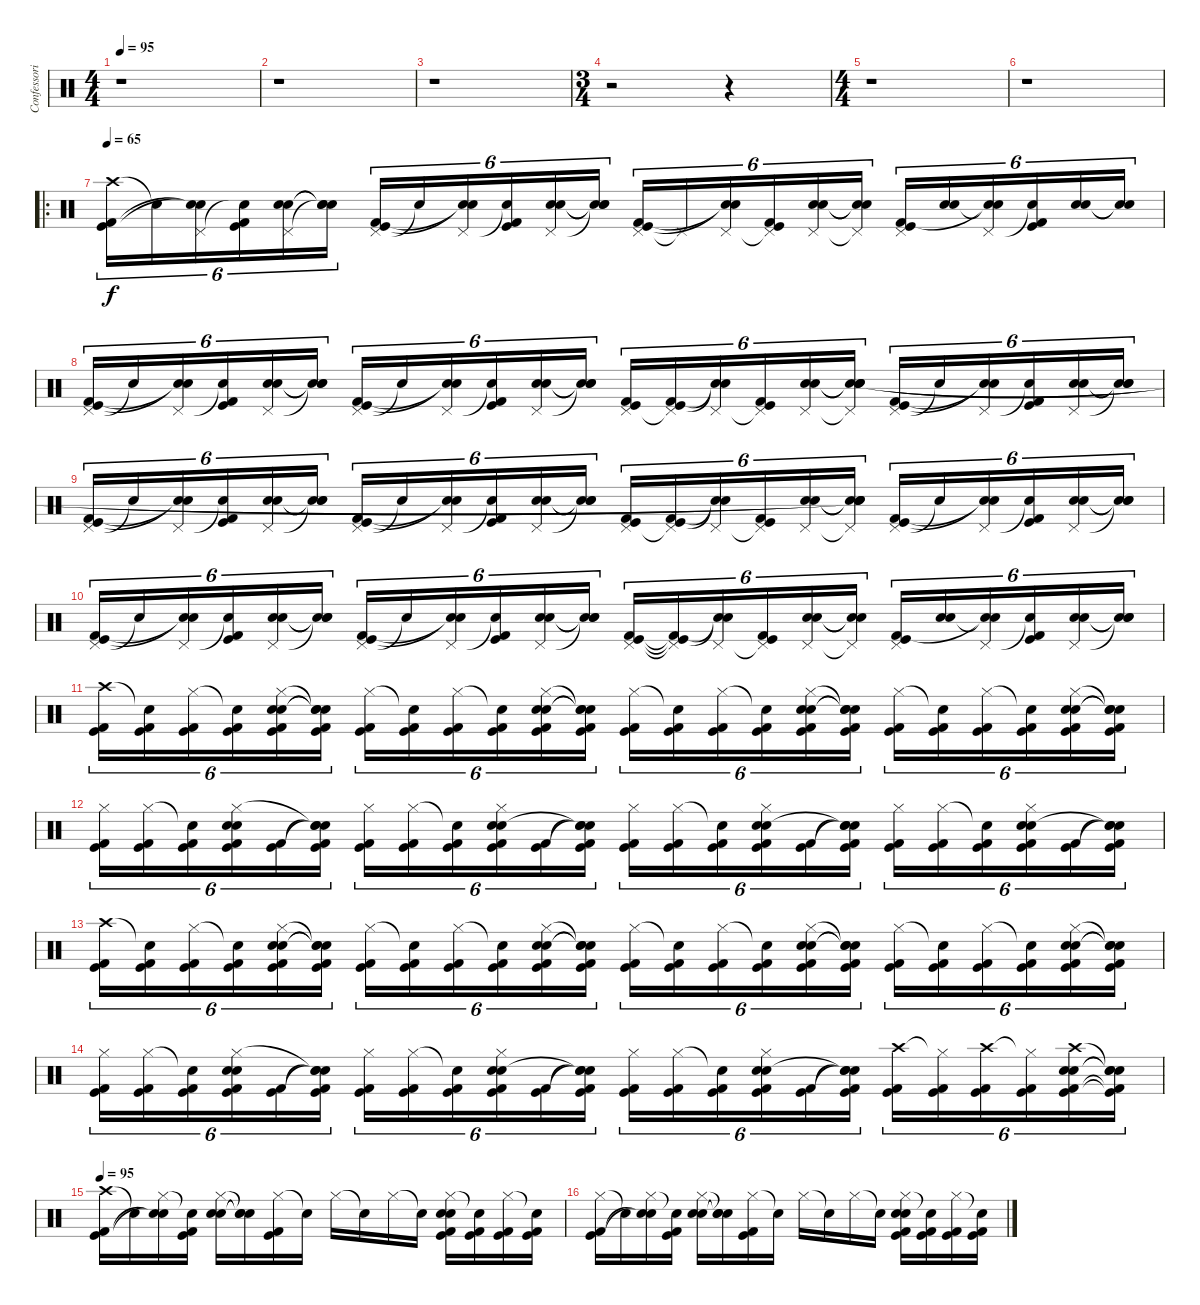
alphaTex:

\track ("Confessori" "Confessori") {instrument percussion}
\staff {score}
\articulation defaults
\ts (4 4)
\tempo 95
\clef neutral
\ks c
r.1{dy f} |
r.1 |
r.1 |
\ts (3 4)
r.2 r.4 |
\ts (4 4)
r.1 |
r.1 |
\ro
\tempo 65
("Crash high (hit)" "Kick (hit)" "Kick (hit) 2").16{tu (6 4) volume 9 balance 8} "Snare (hit)"{t}.16{tu (6 4)} ("Pedal Hi-Hat (hit)" "Snare (hit)"{t} "Snare (hit)"{t}).16{tu (6 4)} ("Snare (hit)"{t} "Kick (hit) 2" "Kick (hit)").16{tu (6 4)} ("Pedal Hi-Hat (hit)" "Electric Snare (hit)" "Snare (hit) 2").16{tu (6 4)} ("Snare (hit)"{t} "Snare (hit)"{t} "Snare (hit)"{t}).16{tu (6 4)} ("Pedal Hi-Hat (hit)" "Kick (hit) 2" "Kick (hit)").16{tu (6 4)} "Snare (hit)"{t}.16{tu (6 4)} ("Pedal Hi-Hat (hit)" "Snare (hit)"{t} "Snare (hit)"{t}).16{tu (6 4)} ("Snare (hit)"{t} "Kick (hit) 2" "Kick (hit)").16{tu (6 4)} ("Pedal Hi-Hat (hit)" "Electric Snare (hit)" "Snare (hit) 2").16{tu (6 4)} ("Snare (hit)"{t} "Snare (hit)"{t} "Snare (hit)"{t}).16{tu (6 4)} ("Pedal Hi-Hat (hit)" "Kick (hit)" "Kick (hit) 2").16{tu (6 4)} "Pedal Hi-Hat (hit)"{t}.16{tu (6 4)} ("Pedal Hi-Hat (hit)" "Snare (hit)"{t} "Snare (hit)"{t}).16{tu (6 4)} ("Pedal Hi-Hat (hit)"{t} "Kick (hit) 2" "Kick (hit)").16{tu (6 4)} ("Pedal Hi-Hat (hit)" "Electric Snare (hit)" "Snare (hit) 2").16{tu (6 4)} ("Pedal Hi-Hat (hit)"{t} "Snare (hit)"{t} "Snare (hit)"{t}).16{tu (6 4)} ("Pedal Hi-Hat (hit)" "Kick (hit)" "Kick (hit) 2").16{tu (6 4)} ("Electric Snare (hit)" "Snare (hit) 2").16{tu (6 4)} ("Pedal Hi-Hat (hit)" "Snare (hit)"{t} "Snare (hit)"{t}).16{tu (6 4)} ("Snare (hit)"{t} "Kick (hit)" "Kick (hit) 2").16{tu (6 4)} ("Electric Snare (hit)" "Snare (hit) 2").16{tu (6 4)} ("Snare (hit)"{t} "Snare (hit)"{t}).16{tu (6 4)} |
("Pedal Hi-Hat (hit)" "Kick (hit)" "Kick (hit) 2").16{tu (6 4)} "Snare (hit)"{t}.16{tu (6 4)} ("Pedal Hi-Hat (hit)" "Snare (hit)"{t} "Snare (hit)"{t}).16{tu (6 4)} ("Snare (hit)"{t} "Kick (hit) 2" "Kick (hit)").16{tu (6 4)} ("Pedal Hi-Hat (hit)" "Electric Snare (hit)" "Snare (hit) 2").16{tu (6 4)} ("Snare (hit)"{t} "Snare (hit)"{t} "Snare (hit)"{t}).16{tu (6 4)} ("Pedal Hi-Hat (hit)" "Kick (hit) 2" "Kick (hit)").16{tu (6 4)} "Snare (hit)"{t}.16{tu (6 4)} ("Pedal Hi-Hat (hit)" "Snare (hit)"{t} "Snare (hit)"{t}).16{tu (6 4)} ("Snare (hit)"{t} "Kick (hit) 2" "Kick (hit)").16{tu (6 4)} ("Pedal Hi-Hat (hit)" "Electric Snare (hit)" "Snare (hit) 2").16{tu (6 4)} ("Snare (hit)"{t} "Snare (hit)"{t} "Snare (hit)"{t}).16{tu (6 4)} ("Pedal Hi-Hat (hit)" "Kick (hit)" "Kick (hit) 2").16{tu (6 4)} ("Pedal Hi-Hat (hit)"{t} "Kick (hit)" "Kick (hit) 2").16{tu (6 4)} ("Pedal Hi-Hat (hit)" "Snare (hit)"{t} "Snare (hit)"{t}).16{tu (6 4)} ("Pedal Hi-Hat (hit)"{t} "Kick (hit) 2" "Kick (hit)").16{tu (6 4)} ("Pedal Hi-Hat (hit)" "Electric Snare (hit)" "Snare (hit) 2").16{tu (6 4)} ("Pedal Hi-Hat (hit)"{t} "Snare (hit)"{t} "Snare (hit)"{t} "Snare (hit)" "Snare (hit)").16{tu (6 4)} ("Pedal Hi-Hat (hit)" "Kick (hit)" "Kick (hit) 2").16{tu (6 4)} "Snare (hit)"{t}.16{tu (6 4)} ("Pedal Hi-Hat (hit)" "Snare (hit)"{t} "Snare (hit)"{t}).16{tu (6 4)} ("Snare (hit)"{t} "Kick (hit)" "Kick (hit) 2").16{tu (6 4)} ("Pedal Hi-Hat (hit)" "Electric Snare (hit)" "Snare (hit) 2").16{tu (6 4)} ("Snare (hit)"{t} "Snare (hit)"{t} "Snare (hit)"{t}).16{tu (6 4)} |
("Pedal Hi-Hat (hit)" "Kick (hit)" "Kick (hit) 2").16{tu (6 4)} "Snare (hit)"{t}.16{tu (6 4)} ("Pedal Hi-Hat (hit)" "Snare (hit)"{t} "Snare (hit)"{t}).16{tu (6 4)} ("Snare (hit)"{t} "Kick (hit) 2" "Kick (hit)").16{tu (6 4)} ("Pedal Hi-Hat (hit)" "Electric Snare (hit)" "Snare (hit) 2").16{tu (6 4)} ("Snare (hit)"{t} "Snare (hit)"{t} "Snare (hit)"{t}).16{tu (6 4)} ("Pedal Hi-Hat (hit)" "Kick (hit) 2" "Kick (hit)").16{tu (6 4)} "Snare (hit)"{t}.16{tu (6 4)} ("Pedal Hi-Hat (hit)" "Snare (hit)"{t} "Snare (hit)"{t}).16{tu (6 4)} ("Snare (hit)"{t} "Kick (hit) 2" "Kick (hit)").16{tu (6 4)} ("Pedal Hi-Hat (hit)" "Electric Snare (hit)" "Snare (hit) 2").16{tu (6 4)} ("Snare (hit)"{t} "Snare (hit)"{t} "Snare (hit)"{t}).16{tu (6 4)} ("Pedal Hi-Hat (hit)" "Kick (hit)" "Kick (hit) 2").16{tu (6 4)} ("Pedal Hi-Hat (hit)"{t} "Kick (hit)" "Kick (hit) 2").16{tu (6 4)} ("Pedal Hi-Hat (hit)" "Snare (hit)"{t} "Snare (hit)"{t}).16{tu (6 4)} ("Pedal Hi-Hat (hit)"{t} "Kick (hit) 2" "Kick (hit)").16{tu (6 4)} ("Pedal Hi-Hat (hit)" "Electric Snare (hit)" "Snare (hit) 2").16{tu (6 4)} ("Pedal Hi-Hat (hit)"{t} "Snare (hit)"{t} "Snare (hit)"{t} "Snare (hit)"{t} "Snare (hit)"{t}).16{tu (6 4)} ("Pedal Hi-Hat (hit)" "Kick (hit)" "Kick (hit) 2").16{tu (6 4)} "Snare (hit)"{t}.16{tu (6 4)} ("Pedal Hi-Hat (hit)" "Snare (hit)"{t} "Snare (hit)"{t}).16{tu (6 4)} ("Snare (hit)"{t} "Kick (hit)" "Kick (hit) 2").16{tu (6 4)} ("Pedal Hi-Hat (hit)" "Electric Snare (hit)" "Snare (hit) 2").16{tu (6 4)} ("Snare (hit)"{t} "Snare (hit)"{t} "Snare (hit)"{t}).16{tu (6 4)} |
("Pedal Hi-Hat (hit)" "Kick (hit)" "Kick (hit) 2").16{tu (6 4)} "Snare (hit)"{t}.16{tu (6 4)} ("Pedal Hi-Hat (hit)" "Snare (hit)"{t} "Snare (hit)"{t}).16{tu (6 4)} ("Snare (hit)"{t} "Kick (hit) 2" "Kick (hit)").16{tu (6 4)} ("Pedal Hi-Hat (hit)" "Electric Snare (hit)" "Snare (hit) 2").16{tu (6 4)} ("Snare (hit)"{t} "Snare (hit)"{t} "Snare (hit)"{t}).16{tu (6 4)} ("Pedal Hi-Hat (hit)" "Kick (hit) 2" "Kick (hit)").16{tu (6 4)} "Snare (hit)"{t}.16{tu (6 4)} ("Pedal Hi-Hat (hit)" "Snare (hit)"{t} "Snare (hit)"{t}).16{tu (6 4)} ("Snare (hit)"{t} "Kick (hit) 2" "Kick (hit)").16{tu (6 4)} ("Pedal Hi-Hat (hit)" "Electric Snare (hit)" "Snare (hit) 2").16{tu (6 4)} ("Snare (hit)"{t} "Snare (hit)"{t} "Snare (hit)"{t}).16{tu (6 4)} ("Pedal Hi-Hat (hit)" "Kick (hit)" "Kick (hit) 2").16{tu (6 4)} ("Pedal Hi-Hat (hit)"{t} "Kick (hit)"{t} "Kick (hit) 2"{t}).16{tu (6 4)} ("Pedal Hi-Hat (hit)" "Snare (hit)"{t} "Snare (hit)"{t}).16{tu (6 4)} ("Pedal Hi-Hat (hit)"{t} "Kick (hit) 2" "Kick (hit)").16{tu (6 4)} ("Pedal Hi-Hat (hit)" "Electric Snare (hit)" "Snare (hit) 2").16{tu (6 4)} ("Pedal Hi-Hat (hit)"{t} "Snare (hit)"{t} "Snare (hit)"{t}).16{tu (6 4)} ("Pedal Hi-Hat (hit)" "Kick (hit)" "Kick (hit) 2").16{tu (6 4)} ("Electric Snare (hit)" "Snare (hit) 2").16{tu (6 4)} ("Pedal Hi-Hat (hit)" "Snare (hit)"{t} "Snare (hit)"{t}).16{tu (6 4)} ("Snare (hit)"{t} "Kick (hit)" "Kick (hit) 2").16{tu (6 4)} ("Pedal Hi-Hat (hit)" "Electric Snare (hit)" "Snare (hit) 2").16{tu (6 4)} ("Snare (hit)"{t} "Snare (hit)"{t} "Snare (hit)"{t}).16{tu (6 4)} |
("Crash high (hit)" "Kick (hit) 2" "Kick (hit)").16{tu (6 4)} ("Snare (hit)"{t} "Kick (hit) 2" "Kick (hit)").16{tu (6 4)} ("Hi-Hat (closed)" "Kick (hit) 2" "Kick (hit)").16{tu (6 4)} ("Snare (hit)"{t} "Kick (hit) 2" "Kick (hit)").16{tu (6 4)} ("Hi-Hat (closed)" "Electric Snare (hit)" "Snare (hit) 2" "Kick (hit) 2" "Kick (hit)").16{tu (6 4)} ("Snare (hit)"{t} "Snare (hit)"{t} "Snare (hit)"{t} "Kick (hit) 2" "Kick (hit)").16{tu (6 4)} ("Hi-Hat (closed)" "Kick (hit) 2" "Kick (hit)").16{tu (6 4)} ("Snare (hit)"{t} "Kick (hit) 2" "Kick (hit)").16{tu (6 4)} ("Hi-Hat (closed)" "Kick (hit) 2" "Kick (hit)").16{tu (6 4)} ("Snare (hit)"{t} "Kick (hit) 2" "Kick (hit)").16{tu (6 4)} ("Hi-Hat (closed)" "Electric Snare (hit)" "Snare (hit) 2" "Kick (hit) 2" "Kick (hit)").16{tu (6 4)} ("Snare (hit)"{t} "Snare (hit)"{t} "Snare (hit)"{t} "Kick (hit) 2" "Kick (hit)").16{tu (6 4)} ("Hi-Hat (closed)" "Kick (hit) 2" "Kick (hit)").16{tu (6 4)} ("Snare (hit)"{t} "Kick (hit) 2" "Kick (hit)").16{tu (6 4)} ("Hi-Hat (closed)" "Kick (hit) 2" "Kick (hit)").16{tu (6 4)} ("Snare (hit)"{t} "Kick (hit) 2" "Kick (hit)").16{tu (6 4)} ("Hi-Hat (closed)" "Electric Snare (hit)" "Snare (hit) 2" "Kick (hit) 2" "Kick (hit)").16{tu (6 4)} ("Snare (hit)"{t} "Snare (hit)"{t} "Snare (hit)"{t} "Kick (hit) 2" "Kick (hit)").16{tu (6 4)} ("Hi-Hat (closed)" "Kick (hit) 2" "Kick (hit)").16{tu (6 4)} ("Snare (hit)"{t} "Kick (hit) 2" "Kick (hit)").16{tu (6 4)} ("Hi-Hat (closed)" "Kick (hit) 2" "Kick (hit)").16{tu (6 4)} ("Snare (hit)"{t} "Kick (hit) 2" "Kick (hit)").16{tu (6 4)} ("Hi-Hat (closed)" "Electric Snare (hit)" "Snare (hit) 2" "Kick (hit) 2" "Kick (hit)").16{tu (6 4)} ("Snare (hit)"{t} "Snare (hit)"{t} "Snare (hit)"{t} "Kick (hit) 2" "Kick (hit)").16{tu (6 4)} |
("Hi-Hat (closed)" "Kick (hit)" "Kick (hit) 2").16{tu (6 4)} ("Hi-Hat (closed)" "Kick (hit)" "Kick (hit) 2").16{tu (6 4)} ("Snare (hit)"{t} "Kick (hit)" "Kick (hit) 2").16{tu (6 4)} ("Electric Snare (hit)" "Snare (hit) 2" "Hi-Hat (closed)" "Kick (hit)" "Kick (hit) 2").16{tu (6 4)} ("Kick (hit)" "Kick (hit) 2").16{tu (6 4)} ("Snare (hit)"{t} "Snare (hit)"{t} "Snare (hit)"{t} "Kick (hit)" "Kick (hit) 2").16{tu (6 4)} ("Hi-Hat (closed)" "Kick (hit)" "Kick (hit) 2").16{tu (6 4)} ("Hi-Hat (closed)" "Kick (hit)" "Kick (hit) 2").16{tu (6 4)} ("Snare (hit)"{t} "Kick (hit)" "Kick (hit) 2").16{tu (6 4)} ("Hi-Hat (closed)" "Electric Snare (hit)" "Snare (hit) 2" "Kick (hit)" "Kick (hit) 2").16{tu (6 4)} ("Kick (hit)" "Kick (hit) 2").16{tu (6 4)} ("Snare (hit)"{t} "Snare (hit)"{t} "Snare (hit)"{t} "Kick (hit)" "Kick (hit) 2").16{tu (6 4)} ("Hi-Hat (closed)" "Kick (hit)" "Kick (hit) 2").16{tu (6 4)} ("Hi-Hat (closed)" "Kick (hit)" "Kick (hit) 2").16{tu (6 4)} ("Snare (hit)"{t} "Kick (hit)" "Kick (hit) 2").16{tu (6 4)} ("Hi-Hat (closed)" "Electric Snare (hit)" "Snare (hit) 2" "Kick (hit)" "Kick (hit) 2").16{tu (6 4)} ("Kick (hit)" "Kick (hit) 2").16{tu (6 4)} ("Snare (hit)"{t} "Snare (hit)"{t} "Snare (hit)"{t} "Kick (hit)" "Kick (hit) 2").16{tu (6 4)} ("Hi-Hat (closed)" "Kick (hit)" "Kick (hit) 2").16{tu (6 4)} ("Hi-Hat (closed)" "Kick (hit)" "Kick (hit) 2").16{tu (6 4)} ("Snare (hit)"{t} "Kick (hit)" "Kick (hit) 2").16{tu (6 4)} ("Hi-Hat (closed)" "Electric Snare (hit)" "Snare (hit) 2" "Kick (hit)" "Kick (hit) 2").16{tu (6 4)} ("Kick (hit)" "Kick (hit) 2").16{tu (6 4)} ("Snare (hit)"{t} "Snare (hit)"{t} "Snare (hit)"{t} "Kick (hit)" "Kick (hit) 2").16{tu (6 4)} |
("Crash high (hit)" "Kick (hit) 2" "Kick (hit)").16{tu (6 4)} ("Snare (hit)"{t} "Kick (hit) 2" "Kick (hit)").16{tu (6 4)} ("Hi-Hat (closed)" "Kick (hit) 2" "Kick (hit)").16{tu (6 4)} ("Snare (hit)"{t} "Kick (hit) 2" "Kick (hit)").16{tu (6 4)} ("Hi-Hat (closed)" "Electric Snare (hit)" "Snare (hit) 2" "Kick (hit) 2" "Kick (hit)").16{tu (6 4)} ("Snare (hit)"{t} "Snare (hit)"{t} "Snare (hit)"{t} "Kick (hit) 2" "Kick (hit)").16{tu (6 4)} ("Hi-Hat (closed)" "Kick (hit) 2" "Kick (hit)").16{tu (6 4)} ("Snare (hit)"{t} "Kick (hit) 2" "Kick (hit)").16{tu (6 4)} ("Hi-Hat (closed)" "Kick (hit) 2" "Kick (hit)").16{tu (6 4)} ("Snare (hit)"{t} "Kick (hit) 2" "Kick (hit)").16{tu (6 4)} ("Hi-Hat (closed)" "Electric Snare (hit)" "Snare (hit) 2" "Kick (hit) 2" "Kick (hit)").16{tu (6 4)} ("Snare (hit)"{t} "Snare (hit)"{t} "Snare (hit)"{t} "Kick (hit) 2" "Kick (hit)").16{tu (6 4)} ("Hi-Hat (closed)" "Kick (hit) 2" "Kick (hit)").16{tu (6 4)} ("Snare (hit)"{t} "Kick (hit) 2" "Kick (hit)").16{tu (6 4)} ("Hi-Hat (closed)" "Kick (hit) 2" "Kick (hit)").16{tu (6 4)} ("Snare (hit)"{t} "Kick (hit) 2" "Kick (hit)").16{tu (6 4)} ("Hi-Hat (closed)" "Electric Snare (hit)" "Snare (hit) 2" "Kick (hit) 2" "Kick (hit)").16{tu (6 4)} ("Snare (hit)"{t} "Snare (hit)"{t} "Snare (hit)"{t} "Kick (hit) 2" "Kick (hit)").16{tu (6 4)} ("Hi-Hat (closed)" "Kick (hit) 2" "Kick (hit)").16{tu (6 4)} ("Snare (hit)"{t} "Kick (hit) 2" "Kick (hit)").16{tu (6 4)} ("Hi-Hat (closed)" "Kick (hit) 2" "Kick (hit)").16{tu (6 4)} ("Snare (hit)"{t} "Kick (hit) 2" "Kick (hit)").16{tu (6 4)} ("Hi-Hat (closed)" "Electric Snare (hit)" "Snare (hit) 2" "Kick (hit) 2" "Kick (hit)").16{tu (6 4)} ("Snare (hit)"{t} "Snare (hit)"{t} "Snare (hit)"{t} "Kick (hit) 2" "Kick (hit)").16{tu (6 4)} |
("Hi-Hat (closed)" "Kick (hit)" "Kick (hit) 2").16{tu (6 4)} ("Hi-Hat (closed)" "Kick (hit)" "Kick (hit) 2").16{tu (6 4)} ("Snare (hit)"{t} "Kick (hit)" "Kick (hit) 2").16{tu (6 4)} ("Electric Snare (hit)" "Snare (hit) 2" "Hi-Hat (closed)" "Kick (hit)" "Kick (hit) 2").16{tu (6 4)} ("Kick (hit)" "Kick (hit) 2").16{tu (6 4)} ("Snare (hit)"{t} "Snare (hit)"{t} "Snare (hit)"{t} "Kick (hit)" "Kick (hit) 2").16{tu (6 4)} ("Hi-Hat (closed)" "Kick (hit)" "Kick (hit) 2").16{tu (6 4)} ("Hi-Hat (closed)" "Kick (hit)" "Kick (hit) 2").16{tu (6 4)} ("Snare (hit)"{t} "Kick (hit)" "Kick (hit) 2").16{tu (6 4)} ("Hi-Hat (closed)" "Electric Snare (hit)" "Snare (hit) 2" "Kick (hit)" "Kick (hit) 2").16{tu (6 4)} ("Kick (hit)" "Kick (hit) 2").16{tu (6 4)} ("Snare (hit)"{t} "Snare (hit)"{t} "Snare (hit)"{t} "Kick (hit)" "Kick (hit) 2").16{tu (6 4)} ("Hi-Hat (closed)" "Kick (hit)" "Kick (hit) 2").16{tu (6 4)} ("Hi-Hat (closed)" "Kick (hit)" "Kick (hit) 2").16{tu (6 4)} ("Snare (hit)"{t} "Kick (hit)" "Kick (hit) 2").16{tu (6 4)} ("Hi-Hat (closed)" "Electric Snare (hit)" "Snare (hit) 2" "Kick (hit)" "Kick (hit) 2").16{tu (6 4)} ("Kick (hit)" "Kick (hit) 2").16{tu (6 4)} ("Snare (hit)"{t} "Snare (hit)"{t} "Snare (hit)"{t} "Kick (hit)" "Kick (hit) 2").16{tu (6 4)} ("Crash high (hit)" "Kick (hit)" "Kick (hit) 2").16{tu (6 4)} ("Hi-Hat (closed)"{t} "Kick (hit)" "Kick (hit) 2").16{tu (6 4)} ("Crash high (hit)" "Kick (hit)" "Kick (hit) 2").16{tu (6 4)} ("Hi-Hat (closed)"{t} "Kick (hit)" "Kick (hit) 2").16{tu (6 4)} ("Crash high (hit)" "Electric Snare (hit)" "Snare (hit) 2" "Kick (hit)" "Kick (hit) 2").16{tu (6 4)} ("Snare (hit)"{t} "Snare (hit)"{t} "Snare (hit)"{t} "Kick (hit)"{t} "Kick (hit) 2"{t}).16{tu (6 4)} |
\tempo 95
("Crash high (hit)" "Kick (hit)" "Kick (hit) 2").16{volume 12 balance 8} "Snare (hit)"{t}.16 ("Hi-Hat (closed)" "Snare (hit)"{t} "Snare (hit)"{t}).16 ("Snare (hit)"{t} "Kick (hit)" "Kick (hit) 2").16 ("Hi-Hat (closed)" "Electric Snare (hit)" "Snare (hit) 2").16 ("Snare (hit)"{t} "Snare (hit)"{t} "Snare (hit)"{t}).16 ("Hi-Hat (closed)" "Kick (hit)" "Kick (hit) 2").16 "Snare (hit)"{t}.16 "Hi-Hat (closed)".16 "Snare (hit)"{t}.16 "Hi-Hat (closed)".16 "Snare (hit)"{t}.16 ("Hi-Hat (closed)" "Electric Snare (hit)" "Snare (hit) 2" "Kick (hit)" "Kick (hit) 2").16 ("Snare (hit)"{t} "Kick (hit)" "Kick (hit) 2").16 ("Hi-Hat (closed)" "Kick (hit)" "Kick (hit) 2").16 ("Snare (hit)"{t} "Kick (hit)" "Kick (hit) 2").16 |
("Hi-Hat (closed)" "Kick (hit)" "Kick (hit) 2").16 "Snare (hit)"{t}.16 ("Hi-Hat (closed)" "Snare (hit)"{t} "Snare (hit)"{t}).16 ("Snare (hit)"{t} "Kick (hit)" "Kick (hit) 2").16 ("Hi-Hat (closed)" "Electric Snare (hit)" "Snare (hit) 2").16 ("Snare (hit)"{t} "Snare (hit)"{t} "Snare (hit)"{t}).16 ("Hi-Hat (closed)" "Kick (hit)" "Kick (hit) 2").16 "Snare (hit)"{t}.16 "Hi-Hat (closed)".16 "Snare (hit)"{t}.16 "Hi-Hat (closed)".16 "Snare (hit)"{t}.16 ("Hi-Hat (closed)" "Electric Snare (hit)" "Snare (hit) 2" "Kick (hit)" "Kick (hit) 2").16 ("Snare (hit)"{t} "Kick (hit)" "Kick (hit) 2").16 ("Hi-Hat (closed)" "Kick (hit)" "Kick (hit) 2").16 ("Snare (hit)"{t} "Kick (hit)" "Kick (hit) 2").16
